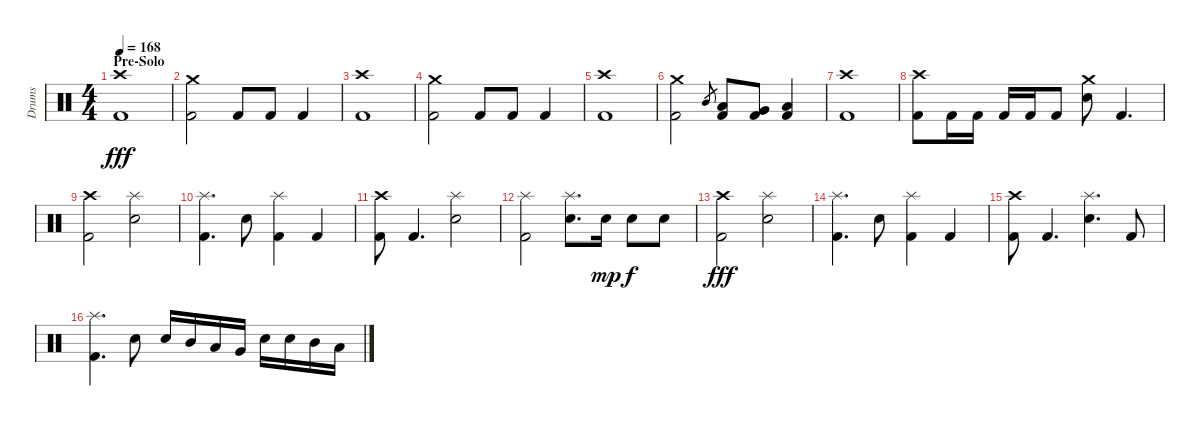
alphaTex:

\track ("Drums" "Drums") {instrument percussion}
\staff {score}
\articulation defaults
\ts (4 4)
\section ("" "Pre-Solo")
\tempo 168
\clef neutral
\ks c
("Crash high (hit)" "Kick (hit) 2").1{dy fff} |
("Crash medium (hit)" "Kick (hit) 2").2 "Kick (hit) 2".8 "Kick (hit) 2".8 "Kick (hit) 2".4 |
("Crash high (hit)" "Kick (hit) 2").1 |
("Crash medium (hit)" "Kick (hit) 2").2 "Kick (hit) 2".8 "Kick (hit) 2".8 "Kick (hit) 2".4 |
("Crash high (hit)" "Kick (hit) 2").1 |
("Crash medium (hit)" "Kick (hit) 2").2 "Mid Tom (hit)".8{gr} ("Low Tom (hit)" "Kick (hit) 2").8 ("Very Low Tom (hit)" "Kick (hit) 2").8 ("Low Floor Tom (hit)" "Kick (hit) 2").4 |
("Crash high (hit)" "Kick (hit) 2").1 |
("Crash high (hit)" "Kick (hit) 2").8 "Kick (hit) 2".16 "Kick (hit) 2".16 "Kick (hit) 2".16 "Kick (hit) 2".16 "Kick (hit) 2".8 ("Crash medium (hit)" "Snare (hit) 2").8 "Kick (hit) 2".4{d} |
("Crash high (hit)" "Kick (hit) 2").2 ("Splash (hit)" "Snare (hit) 2").2 |
("Splash (hit)" "Kick (hit) 2").4{d} "Snare (hit) 2".8 ("Splash (hit)" "Kick (hit) 2").4 "Kick (hit) 2".4 |
("Crash high (hit)" "Kick (hit) 2").8 "Kick (hit) 2".4{d} ("Splash (hit)" "Snare (hit) 2").2 |
("Splash (hit)" "Kick (hit) 2").2 ("Splash (hit)" "Snare (hit) 2").8{d} "Snare (hit) 2".16{dy mp} "Snare (hit) 2".8{dy f} "Snare (hit) 2".8 |
("Crash high (hit)" "Kick (hit) 2").2{dy fff} ("Splash (hit)" "Snare (hit) 2").2 |
("Splash (hit)" "Kick (hit) 2").4{d} "Snare (hit) 2".8 ("Splash (hit)" "Kick (hit) 2").4 "Kick (hit) 2".4 |
("Crash high (hit)" "Kick (hit) 2").8 "Kick (hit) 2".4{d} ("Splash (hit)" "Snare (hit) 2").4{d} "Kick (hit) 2".8 |
("Splash (hit)" "Kick (hit) 2").4{d} "Snare (hit) 2".8 "Snare (hit) 2".16 "Mid Tom (hit)".16 "Low Tom (hit)".16 "Very Low Tom (hit)".16 "Snare (hit) 2".16 "Snare (hit) 2".16 "Mid Tom (hit)".16 "Low Tom (hit)".16
